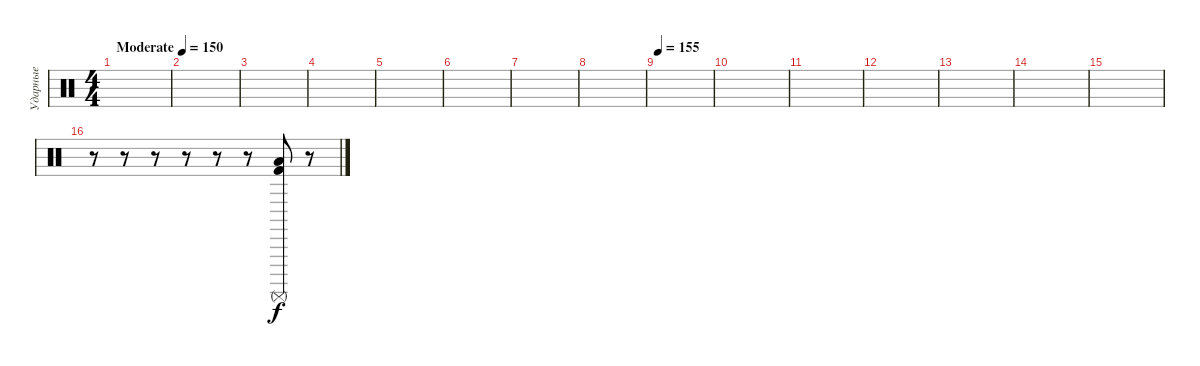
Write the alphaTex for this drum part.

\track ("Ударные" "Ударные") {instrument percussion}
\staff {score}
\articulation defaults
\ts (4 4)
\tempo (150 "Moderate")
\clef neutral
\ks c
|
|
|
|
|
|
|
|
\tempo 155
|
|
|
|
|
|
|
r.8 r.8 r.8 r.8 r.8 r.8 ("Surdo (mute)" "Low Tom (hit)" "Kick (hit) 2").8 r.8
